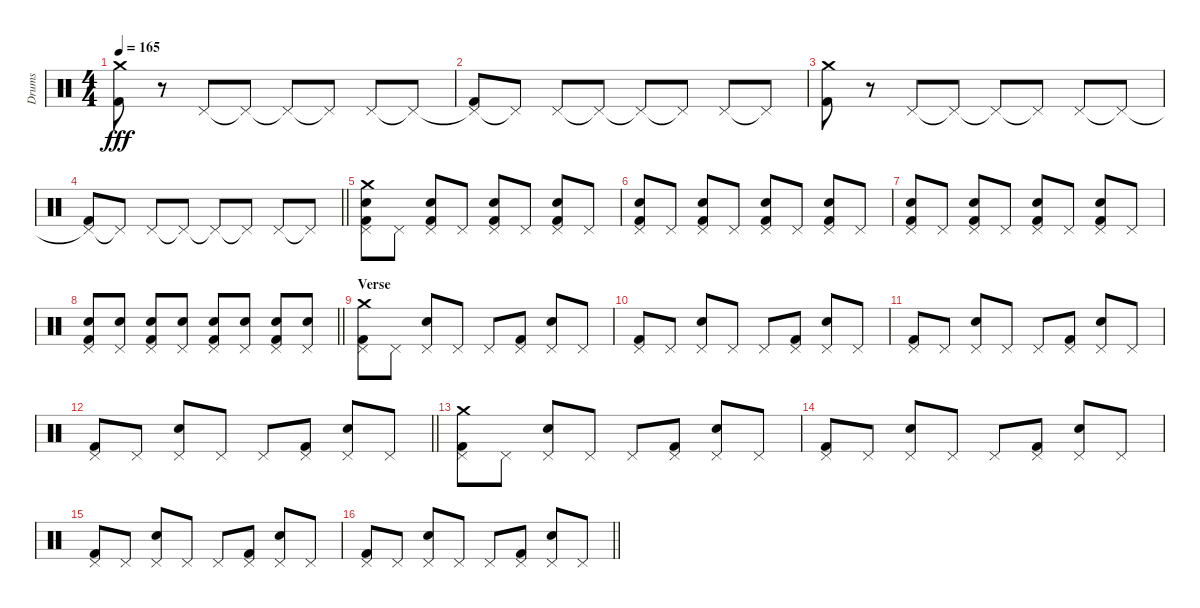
\track ("Drums" "Drums") {instrument percussion}
\staff {score}
\articulation defaults
\ts (4 4)
\tempo 165
\clef neutral
\ks c
("Crash medium (hit)" "Kick (hit) 2").8{dy fff} r.8 "Pedal Hi-Hat (hit)".8 "Pedal Hi-Hat (hit)"{t}.8 "Pedal Hi-Hat (hit)"{t}.8 "Pedal Hi-Hat (hit)"{t}.8 "Pedal Hi-Hat (hit)".8 "Pedal Hi-Hat (hit)"{t}.8 |
("Pedal Hi-Hat (hit)"{t} "Kick (hit) 2").8 "Pedal Hi-Hat (hit)"{t}.8 "Pedal Hi-Hat (hit)".8 "Pedal Hi-Hat (hit)"{t}.8 "Pedal Hi-Hat (hit)"{t}.8 "Pedal Hi-Hat (hit)"{t}.8 "Pedal Hi-Hat (hit)".8 "Pedal Hi-Hat (hit)"{t}.8 |
("Crash medium (hit)" "Kick (hit) 2").8 r.8 "Pedal Hi-Hat (hit)".8 "Pedal Hi-Hat (hit)"{t}.8 "Pedal Hi-Hat (hit)"{t}.8 "Pedal Hi-Hat (hit)"{t}.8 "Pedal Hi-Hat (hit)".8 "Pedal Hi-Hat (hit)"{t}.8 |
\barLineRight lightlight
("Pedal Hi-Hat (hit)"{t} "Kick (hit) 2").8 "Pedal Hi-Hat (hit)"{t}.8 "Pedal Hi-Hat (hit)".8 "Pedal Hi-Hat (hit)"{t}.8 "Pedal Hi-Hat (hit)"{t}.8 "Pedal Hi-Hat (hit)"{t}.8 "Pedal Hi-Hat (hit)".8 "Pedal Hi-Hat (hit)"{t}.8 |
("Crash medium (hit)" "Pedal Hi-Hat (hit)" "Snare (hit) 2" "Kick (hit) 2").8 "Pedal Hi-Hat (hit)".8 ("Pedal Hi-Hat (hit)" "Snare (hit) 2" "Kick (hit) 2").8 "Pedal Hi-Hat (hit)".8 ("Pedal Hi-Hat (hit)" "Snare (hit) 2" "Kick (hit) 2").8 "Pedal Hi-Hat (hit)".8 ("Pedal Hi-Hat (hit)" "Snare (hit) 2" "Kick (hit) 2").8 "Pedal Hi-Hat (hit)".8 |
("Pedal Hi-Hat (hit)" "Snare (hit) 2" "Kick (hit) 2").8 "Pedal Hi-Hat (hit)".8 ("Pedal Hi-Hat (hit)" "Snare (hit) 2" "Kick (hit) 2").8 "Pedal Hi-Hat (hit)".8 ("Pedal Hi-Hat (hit)" "Snare (hit) 2" "Kick (hit) 2").8 "Pedal Hi-Hat (hit)".8 ("Pedal Hi-Hat (hit)" "Snare (hit) 2" "Kick (hit) 2").8 "Pedal Hi-Hat (hit)".8 |
("Pedal Hi-Hat (hit)" "Snare (hit) 2" "Kick (hit) 2").8 "Pedal Hi-Hat (hit)".8 ("Pedal Hi-Hat (hit)" "Snare (hit) 2" "Kick (hit) 2").8 "Pedal Hi-Hat (hit)".8 ("Pedal Hi-Hat (hit)" "Snare (hit) 2" "Kick (hit) 2").8 "Pedal Hi-Hat (hit)".8 ("Pedal Hi-Hat (hit)" "Snare (hit) 2" "Kick (hit) 2").8 "Pedal Hi-Hat (hit)".8 |
\barLineRight lightlight
("Pedal Hi-Hat (hit)" "Snare (hit) 2" "Kick (hit) 2").8 ("Pedal Hi-Hat (hit)" "Snare (hit) 2").8 ("Pedal Hi-Hat (hit)" "Snare (hit) 2" "Kick (hit) 2").8 ("Pedal Hi-Hat (hit)" "Snare (hit) 2").8 ("Pedal Hi-Hat (hit)" "Snare (hit) 2" "Kick (hit) 2").8 ("Pedal Hi-Hat (hit)" "Snare (hit) 2").8 ("Pedal Hi-Hat (hit)" "Snare (hit) 2" "Kick (hit) 2").8 ("Pedal Hi-Hat (hit)" "Snare (hit) 2").8 |
\section ("" "Verse")
("Crash medium (hit)" "Pedal Hi-Hat (hit)" "Kick (hit) 2").8 "Pedal Hi-Hat (hit)".8 ("Pedal Hi-Hat (hit)" "Snare (hit) 2").8 "Pedal Hi-Hat (hit)".8 "Pedal Hi-Hat (hit)".8 ("Pedal Hi-Hat (hit)" "Kick (hit) 2").8 ("Pedal Hi-Hat (hit)" "Snare (hit) 2").8 "Pedal Hi-Hat (hit)".8 |
("Pedal Hi-Hat (hit)" "Kick (hit) 2").8 "Pedal Hi-Hat (hit)".8 ("Pedal Hi-Hat (hit)" "Snare (hit) 2").8 "Pedal Hi-Hat (hit)".8 "Pedal Hi-Hat (hit)".8 ("Pedal Hi-Hat (hit)" "Kick (hit) 2").8 ("Pedal Hi-Hat (hit)" "Snare (hit) 2").8 "Pedal Hi-Hat (hit)".8 |
("Pedal Hi-Hat (hit)" "Kick (hit) 2").8 "Pedal Hi-Hat (hit)".8 ("Pedal Hi-Hat (hit)" "Snare (hit) 2").8 "Pedal Hi-Hat (hit)".8 "Pedal Hi-Hat (hit)".8 ("Pedal Hi-Hat (hit)" "Kick (hit) 2").8 ("Pedal Hi-Hat (hit)" "Snare (hit) 2").8 "Pedal Hi-Hat (hit)".8 |
\barLineRight lightlight
("Pedal Hi-Hat (hit)" "Kick (hit) 2").8 "Pedal Hi-Hat (hit)".8 ("Pedal Hi-Hat (hit)" "Snare (hit) 2").8 "Pedal Hi-Hat (hit)".8 "Pedal Hi-Hat (hit)".8 ("Pedal Hi-Hat (hit)" "Kick (hit) 2").8 ("Pedal Hi-Hat (hit)" "Snare (hit) 2").8 "Pedal Hi-Hat (hit)".8 |
("Crash medium (hit)" "Pedal Hi-Hat (hit)" "Kick (hit) 2").8 "Pedal Hi-Hat (hit)".8 ("Pedal Hi-Hat (hit)" "Snare (hit) 2").8 "Pedal Hi-Hat (hit)".8 "Pedal Hi-Hat (hit)".8 ("Pedal Hi-Hat (hit)" "Kick (hit) 2").8 ("Pedal Hi-Hat (hit)" "Snare (hit) 2").8 "Pedal Hi-Hat (hit)".8 |
("Pedal Hi-Hat (hit)" "Kick (hit) 2").8 "Pedal Hi-Hat (hit)".8 ("Pedal Hi-Hat (hit)" "Snare (hit) 2").8 "Pedal Hi-Hat (hit)".8 "Pedal Hi-Hat (hit)".8 ("Pedal Hi-Hat (hit)" "Kick (hit) 2").8 ("Pedal Hi-Hat (hit)" "Snare (hit) 2").8 "Pedal Hi-Hat (hit)".8 |
("Pedal Hi-Hat (hit)" "Kick (hit) 2").8 "Pedal Hi-Hat (hit)".8 ("Pedal Hi-Hat (hit)" "Snare (hit) 2").8 "Pedal Hi-Hat (hit)".8 "Pedal Hi-Hat (hit)".8 ("Pedal Hi-Hat (hit)" "Kick (hit) 2").8 ("Pedal Hi-Hat (hit)" "Snare (hit) 2").8 "Pedal Hi-Hat (hit)".8 |
\barLineRight lightlight
("Pedal Hi-Hat (hit)" "Kick (hit) 2").8 "Pedal Hi-Hat (hit)".8 ("Pedal Hi-Hat (hit)" "Snare (hit) 2").8 "Pedal Hi-Hat (hit)".8 "Pedal Hi-Hat (hit)".8 ("Pedal Hi-Hat (hit)" "Kick (hit) 2").8 ("Pedal Hi-Hat (hit)" "Snare (hit) 2").8 "Pedal Hi-Hat (hit)".8
